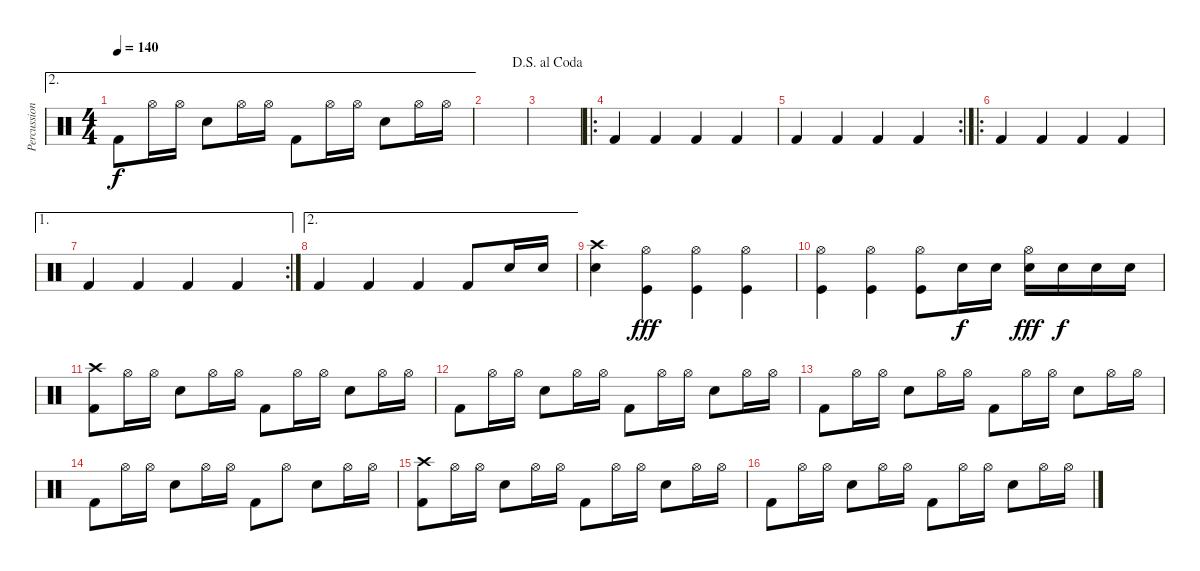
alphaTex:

\track ("Percussion" "Percussion") {instrument percussion}
\staff {score}
\articulation defaults
\ae 2
\ts (4 4)
\tempo 140
\clef neutral
\ks c "Kick (hit) 2".8{dy f} "Hi-Hat (open)".16 "Hi-Hat (open)".16 "Snare (hit) 2".8 "Hi-Hat (open)".16 "Hi-Hat (open)".16 "Kick (hit) 2".8 "Hi-Hat (open)".16 "Hi-Hat (open)".16 "Snare (hit) 2".8 "Hi-Hat (open)".16 "Hi-Hat (open)".16
|
|
\jump dalsegnoalcoda
|
\ro "Kick (hit) 2".4 "Kick (hit) 2".4 "Kick (hit) 2".4 "Kick (hit) 2".4
|
\rc 2 "Kick (hit) 2".4 "Kick (hit) 2".4 "Kick (hit) 2".4 "Kick (hit) 2".4
|
\ro "Kick (hit) 2".4 "Kick (hit) 2".4 "Kick (hit) 2".4 "Kick (hit) 2".4
|
\ae 1
\rc 2 "Kick (hit) 2".4 "Kick (hit) 2".4 "Kick (hit) 2".4 "Kick (hit) 2".4
|
\ae 2 "Kick (hit) 2".4 "Kick (hit) 2".4 "Kick (hit) 2".4 "Kick (hit) 2".8 "Snare (hit) 2".16 "Snare (hit) 2".16
|
("Crash high (hit)" "Snare (hit) 2").4 ("Hi-Hat (open)" "Kick (hit)").4{dy fff} ("Hi-Hat (open)" "Kick (hit)").4 ("Hi-Hat (open)" "Kick (hit)").4 |
("Hi-Hat (open)" "Kick (hit)").4 ("Hi-Hat (open)" "Kick (hit)").4 ("Hi-Hat (open)" "Kick (hit)").8 "Snare (hit) 2".16{dy f} "Snare (hit) 2".16 ("Hi-Hat (open)" "Snare (hit) 2").16{dy fff} "Snare (hit) 2".16{dy f} "Snare (hit) 2".16 "Snare (hit) 2".16 |
("Crash high (hit)" "Kick (hit) 2").8 "Hi-Hat (open)".16 "Hi-Hat (open)".16 "Snare (hit) 2".8 "Hi-Hat (open)".16 "Hi-Hat (open)".16 "Kick (hit) 2".8 "Hi-Hat (open)".16 "Hi-Hat (open)".16 "Snare (hit) 2".8 "Hi-Hat (open)".16 "Hi-Hat (open)".16 |
"Kick (hit) 2".8 "Hi-Hat (open)".16 "Hi-Hat (open)".16 "Snare (hit) 2".8 "Hi-Hat (open)".16 "Hi-Hat (open)".16 "Kick (hit) 2".8 "Hi-Hat (open)".16 "Hi-Hat (open)".16 "Snare (hit) 2".8 "Hi-Hat (open)".16 "Hi-Hat (open)".16 |
"Kick (hit) 2".8 "Hi-Hat (open)".16 "Hi-Hat (open)".16 "Snare (hit) 2".8 "Hi-Hat (open)".16 "Hi-Hat (open)".16 "Kick (hit) 2".8 "Hi-Hat (open)".16 "Hi-Hat (open)".16 "Snare (hit) 2".8 "Hi-Hat (open)".16 "Hi-Hat (open)".16 |
"Kick (hit) 2".8 "Hi-Hat (open)".16 "Hi-Hat (open)".16 "Snare (hit) 2".8 "Hi-Hat (open)".16 "Hi-Hat (open)".16 "Kick (hit) 2".8 "Hi-Hat (open)".8 "Snare (hit) 2".8 "Hi-Hat (open)".16 "Hi-Hat (open)".16 |
("Crash high (hit)" "Kick (hit) 2").8 "Hi-Hat (open)".16 "Hi-Hat (open)".16 "Snare (hit) 2".8 "Hi-Hat (open)".16 "Hi-Hat (open)".16 "Kick (hit) 2".8 "Hi-Hat (open)".16 "Hi-Hat (open)".16 "Snare (hit) 2".8 "Hi-Hat (open)".16 "Hi-Hat (open)".16 |
"Kick (hit) 2".8 "Hi-Hat (open)".16 "Hi-Hat (open)".16 "Snare (hit) 2".8 "Hi-Hat (open)".16 "Hi-Hat (open)".16 "Kick (hit) 2".8 "Hi-Hat (open)".16 "Hi-Hat (open)".16 "Snare (hit) 2".8 "Hi-Hat (open)".16 "Hi-Hat (open)".16
